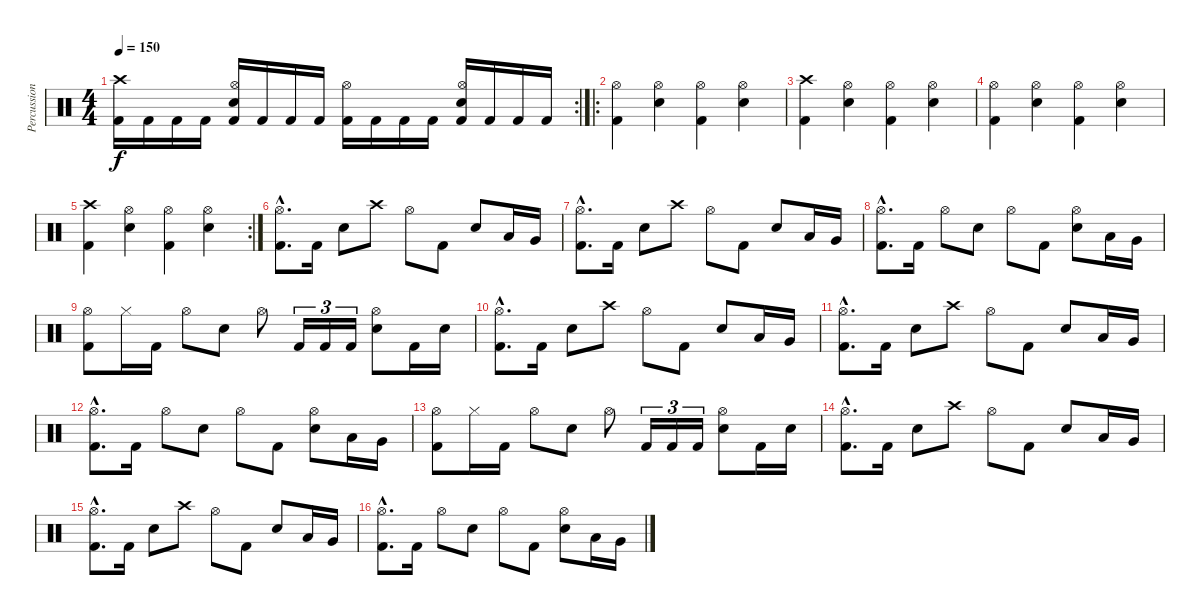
\track ("Percussion" "Percussion") {instrument percussion}
\staff {score}
\articulation defaults
\rc 2
\ts (4 4)
\tempo 150
\clef neutral
\ks c
("Crash high (hit)" "Kick (hit) 2").16{dy f} "Kick (hit) 2".16 "Kick (hit) 2".16 "Kick (hit) 2".16 ("Hi-Hat (open)" "Electric Snare (hit)" "Kick (hit) 2").16 "Kick (hit) 2".16 "Kick (hit) 2".16 "Kick (hit) 2".16 ("Hi-Hat (open)" "Kick (hit) 2").16 "Kick (hit) 2".16 "Kick (hit) 2".16 "Kick (hit) 2".16 ("Hi-Hat (open)" "Electric Snare (hit)" "Kick (hit) 2").16 "Kick (hit) 2".16 "Kick (hit) 2".16 "Kick (hit) 2".16 |
\ro
("Hi-Hat (open)" "Kick (hit) 2").4 ("Hi-Hat (open)" "Electric Snare (hit)").4 ("Hi-Hat (open)" "Kick (hit) 2").4 ("Hi-Hat (open)" "Electric Snare (hit)").4 |
("Crash high (hit)" "Kick (hit) 2").4 ("Hi-Hat (open)" "Electric Snare (hit)").4 ("Hi-Hat (open)" "Kick (hit) 2").4 ("Hi-Hat (open)" "Electric Snare (hit)").4 |
("Hi-Hat (open)" "Kick (hit) 2").4 ("Hi-Hat (open)" "Electric Snare (hit)").4 ("Hi-Hat (open)" "Kick (hit) 2").4 ("Hi-Hat (open)" "Electric Snare (hit)").4 |
\rc 2
("Crash high (hit)" "Kick (hit) 2").4 ("Hi-Hat (open)" "Electric Snare (hit)").4 ("Hi-Hat (open)" "Kick (hit) 2").4 ("Hi-Hat (open)" "Electric Snare (hit)").4 |
("Hi-Hat (open)"{hac} "Kick (hit) 2"{hac}).8{d} "Kick (hit) 2".16 "Electric Snare (hit)".8 "Crash high (hit)".8 "Hi-Hat (open)".8 "Kick (hit) 2".8 "Electric Snare (hit)".8 "Low Tom (hit)".16 "Very Low Tom (hit)".16 |
("Hi-Hat (open)"{hac} "Kick (hit) 2"{hac}).8{d} "Kick (hit) 2".16 "Electric Snare (hit)".8 "Crash high (hit)".8 "Hi-Hat (open)".8 "Kick (hit) 2".8 "Electric Snare (hit)".8 "Low Tom (hit)".16 "Very Low Tom (hit)".16 |
("Hi-Hat (open)"{hac} "Kick (hit) 2"{hac}).8{d} "Kick (hit) 2".16 "Hi-Hat (open)".8 "Electric Snare (hit)".8 "Hi-Hat (open)".8 "Kick (hit) 2".8 ("Hi-Hat (open)" "Electric Snare (hit)").8 "Low Tom (hit)".16 "Very Low Tom (hit)".16 |
("Hi-Hat (open)" "Kick (hit) 2").8 "Hi-Hat (closed)".16 "Kick (hit) 2".16 "Hi-Hat (open)".8 "Electric Snare (hit)".8 "Hi-Hat (open)".8 "Kick (hit) 2".16{tu (3 2)} "Kick (hit) 2".16{tu (3 2)} "Kick (hit) 2".16{tu (3 2)} ("Hi-Hat (open)" "Electric Snare (hit)").8 "Kick (hit) 2".16 "Electric Snare (hit)".16 |
("Hi-Hat (open)"{hac} "Kick (hit) 2"{hac}).8{d} "Kick (hit) 2".16 "Electric Snare (hit)".8 "Crash high (hit)".8 "Hi-Hat (open)".8 "Kick (hit) 2".8 "Electric Snare (hit)".8 "Low Tom (hit)".16 "Very Low Tom (hit)".16 |
("Hi-Hat (open)"{hac} "Kick (hit) 2"{hac}).8{d} "Kick (hit) 2".16 "Electric Snare (hit)".8 "Crash high (hit)".8 "Hi-Hat (open)".8 "Kick (hit) 2".8 "Electric Snare (hit)".8 "Low Tom (hit)".16 "Very Low Tom (hit)".16 |
("Hi-Hat (open)"{hac} "Kick (hit) 2"{hac}).8{d} "Kick (hit) 2".16 "Hi-Hat (open)".8 "Electric Snare (hit)".8 "Hi-Hat (open)".8 "Kick (hit) 2".8 ("Hi-Hat (open)" "Electric Snare (hit)").8 "Low Tom (hit)".16 "Very Low Tom (hit)".16 |
("Hi-Hat (open)" "Kick (hit) 2").8 "Hi-Hat (closed)".16 "Kick (hit) 2".16 "Hi-Hat (open)".8 "Electric Snare (hit)".8 "Hi-Hat (open)".8 "Kick (hit) 2".16{tu (3 2)} "Kick (hit) 2".16{tu (3 2)} "Kick (hit) 2".16{tu (3 2)} ("Hi-Hat (open)" "Electric Snare (hit)").8 "Kick (hit) 2".16 "Electric Snare (hit)".16 |
("Hi-Hat (open)"{hac} "Kick (hit) 2"{hac}).8{d} "Kick (hit) 2".16 "Electric Snare (hit)".8 "Crash high (hit)".8 "Hi-Hat (open)".8 "Kick (hit) 2".8 "Electric Snare (hit)".8 "Low Tom (hit)".16 "Very Low Tom (hit)".16 |
("Hi-Hat (open)"{hac} "Kick (hit) 2"{hac}).8{d} "Kick (hit) 2".16 "Electric Snare (hit)".8 "Crash high (hit)".8 "Hi-Hat (open)".8 "Kick (hit) 2".8 "Electric Snare (hit)".8 "Low Tom (hit)".16 "Very Low Tom (hit)".16 |
("Hi-Hat (open)"{hac} "Kick (hit) 2"{hac}).8{d} "Kick (hit) 2".16 "Hi-Hat (open)".8 "Electric Snare (hit)".8 "Hi-Hat (open)".8 "Kick (hit) 2".8 ("Hi-Hat (open)" "Electric Snare (hit)").8 "Low Tom (hit)".16 "Very Low Tom (hit)".16
